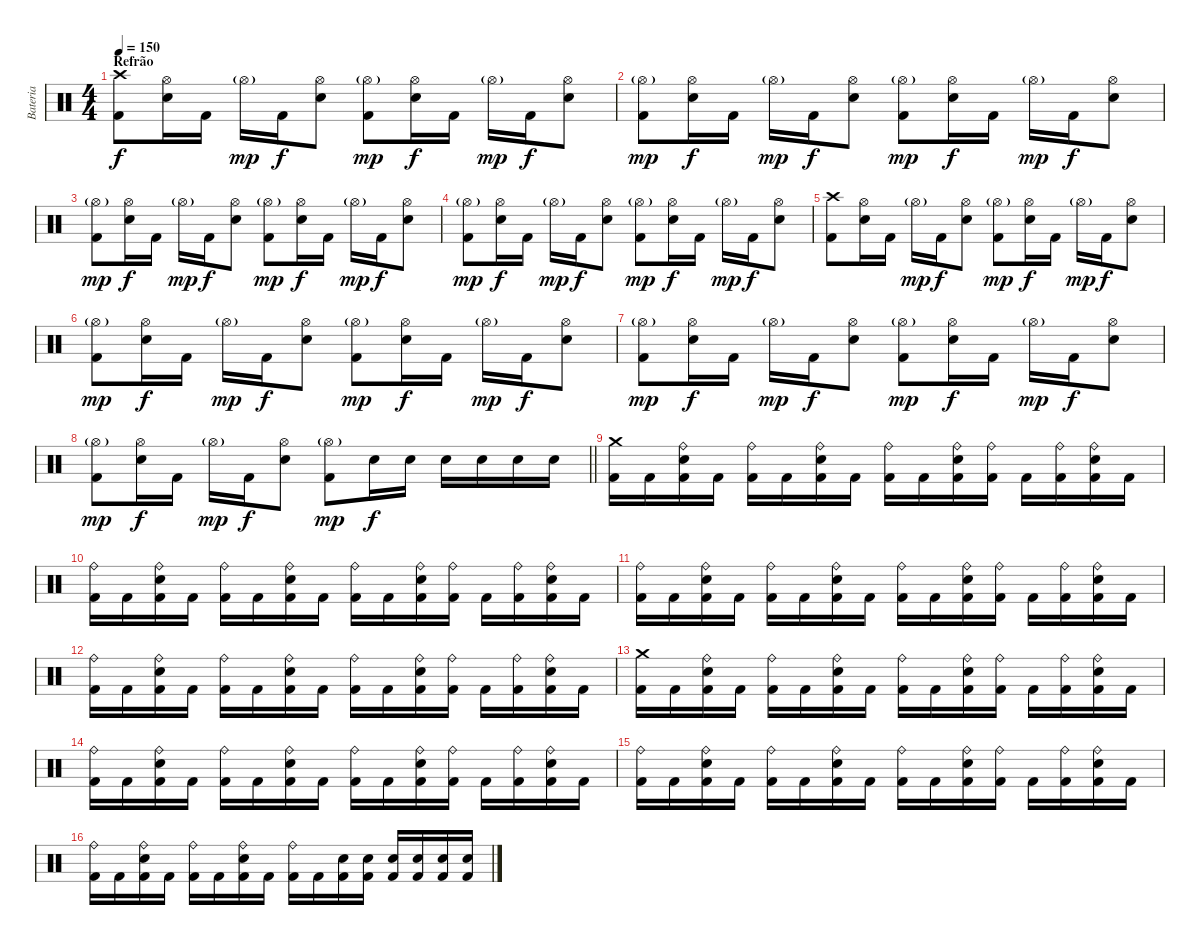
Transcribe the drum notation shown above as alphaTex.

\track ("Bateria" "Bateria") {instrument percussion}
\staff {score}
\articulation defaults
\ts (4 4)
\section ("" "Refrão")
\tempo 150
\clef neutral
\ks c
("Crash high (hit)" "Kick (hit) 2").8{dy f} ("Hi-Hat (open)" "Electric Snare (hit)").16 "Kick (hit) 2".16 "Hi-Hat (open)"{g}.16{dy mp} "Kick (hit) 2".16{dy f} ("Hi-Hat (open)" "Electric Snare (hit)").8 ("Hi-Hat (open)"{g} "Kick (hit) 2").8{dy mp} ("Hi-Hat (open)" "Electric Snare (hit)").16{dy f} "Kick (hit) 2".16 "Hi-Hat (open)"{g}.16{dy mp} "Kick (hit) 2".16{dy f} ("Hi-Hat (open)" "Electric Snare (hit)").8 |
("Hi-Hat (open)"{g} "Kick (hit) 2").8{dy mp} ("Hi-Hat (open)" "Electric Snare (hit)").16{dy f} "Kick (hit) 2".16 "Hi-Hat (open)"{g}.16{dy mp} "Kick (hit) 2".16{dy f} ("Hi-Hat (open)" "Electric Snare (hit)").8 ("Hi-Hat (open)"{g} "Kick (hit) 2").8{dy mp} ("Hi-Hat (open)" "Electric Snare (hit)").16{dy f} "Kick (hit) 2".16 "Hi-Hat (open)"{g}.16{dy mp} "Kick (hit) 2".16{dy f} ("Hi-Hat (open)" "Electric Snare (hit)").8 |
("Hi-Hat (open)"{g} "Kick (hit) 2").8{dy mp} ("Hi-Hat (open)" "Electric Snare (hit)").16{dy f} "Kick (hit) 2".16 "Hi-Hat (open)"{g}.16{dy mp} "Kick (hit) 2".16{dy f} ("Hi-Hat (open)" "Electric Snare (hit)").8 ("Hi-Hat (open)"{g} "Kick (hit) 2").8{dy mp} ("Hi-Hat (open)" "Electric Snare (hit)").16{dy f} "Kick (hit) 2".16 "Hi-Hat (open)"{g}.16{dy mp} "Kick (hit) 2".16{dy f} ("Hi-Hat (open)" "Electric Snare (hit)").8 |
("Hi-Hat (open)"{g} "Kick (hit) 2").8{dy mp} ("Hi-Hat (open)" "Electric Snare (hit)").16{dy f} "Kick (hit) 2".16 "Hi-Hat (open)"{g}.16{dy mp} "Kick (hit) 2".16{dy f} ("Hi-Hat (open)" "Electric Snare (hit)").8 ("Hi-Hat (open)"{g} "Kick (hit) 2").8{dy mp} ("Hi-Hat (open)" "Electric Snare (hit)").16{dy f} "Kick (hit) 2".16 "Hi-Hat (open)"{g}.16{dy mp} "Kick (hit) 2".16{dy f} ("Hi-Hat (open)" "Electric Snare (hit)").8 |
("Crash high (hit)" "Kick (hit) 2").8 ("Hi-Hat (open)" "Electric Snare (hit)").16 "Kick (hit) 2".16 "Hi-Hat (open)"{g}.16{dy mp} "Kick (hit) 2".16{dy f} ("Hi-Hat (open)" "Electric Snare (hit)").8 ("Hi-Hat (open)"{g} "Kick (hit) 2").8{dy mp} ("Hi-Hat (open)" "Electric Snare (hit)").16{dy f} "Kick (hit) 2".16 "Hi-Hat (open)"{g}.16{dy mp} "Kick (hit) 2".16{dy f} ("Hi-Hat (open)" "Electric Snare (hit)").8 |
("Hi-Hat (open)"{g} "Kick (hit) 2").8{dy mp} ("Hi-Hat (open)" "Electric Snare (hit)").16{dy f} "Kick (hit) 2".16 "Hi-Hat (open)"{g}.16{dy mp} "Kick (hit) 2".16{dy f} ("Hi-Hat (open)" "Electric Snare (hit)").8 ("Hi-Hat (open)"{g} "Kick (hit) 2").8{dy mp} ("Hi-Hat (open)" "Electric Snare (hit)").16{dy f} "Kick (hit) 2".16 "Hi-Hat (open)"{g}.16{dy mp} "Kick (hit) 2".16{dy f} ("Hi-Hat (open)" "Electric Snare (hit)").8 |
("Hi-Hat (open)"{g} "Kick (hit) 2").8{dy mp} ("Hi-Hat (open)" "Electric Snare (hit)").16{dy f} "Kick (hit) 2".16 "Hi-Hat (open)"{g}.16{dy mp} "Kick (hit) 2".16{dy f} ("Hi-Hat (open)" "Electric Snare (hit)").8 ("Hi-Hat (open)"{g} "Kick (hit) 2").8{dy mp} ("Hi-Hat (open)" "Electric Snare (hit)").16{dy f} "Kick (hit) 2".16 "Hi-Hat (open)"{g}.16{dy mp} "Kick (hit) 2".16{dy f} ("Hi-Hat (open)" "Electric Snare (hit)").8 |
\barLineRight lightlight
("Hi-Hat (open)"{g} "Kick (hit) 2").8{dy mp} ("Hi-Hat (open)" "Electric Snare (hit)").16{dy f} "Kick (hit) 2".16 "Hi-Hat (open)"{g}.16{dy mp} "Kick (hit) 2".16{dy f} ("Hi-Hat (open)" "Electric Snare (hit)").8 ("Hi-Hat (open)"{g} "Kick (hit) 2").8{dy mp} "Electric Snare (hit)".16{dy f} "Electric Snare (hit)".16 "Electric Snare (hit)".16 "Electric Snare (hit)".16 "Electric Snare (hit)".16 "Electric Snare (hit)".16 |
("Crash medium (hit)" "Kick (hit) 2").16 "Kick (hit) 2".16 ("Ride (bell)" "Electric Snare (hit)" "Kick (hit) 2").16 "Kick (hit) 2".16 ("Ride (bell)" "Kick (hit) 2").16 "Kick (hit) 2".16 ("Ride (bell)" "Electric Snare (hit)" "Kick (hit) 2").16 "Kick (hit) 2".16 ("Ride (bell)" "Kick (hit) 2").16 "Kick (hit) 2".16 ("Ride (bell)" "Electric Snare (hit)" "Kick (hit) 2").16 ("Ride (bell)" "Kick (hit) 2").16 "Kick (hit) 2".16 ("Ride (bell)" "Kick (hit) 2").16 ("Ride (bell)" "Electric Snare (hit)" "Kick (hit) 2").16 "Kick (hit) 2".16 |
("Ride (bell)" "Kick (hit) 2").16 "Kick (hit) 2".16 ("Ride (bell)" "Electric Snare (hit)" "Kick (hit) 2").16 "Kick (hit) 2".16 ("Ride (bell)" "Kick (hit) 2").16 "Kick (hit) 2".16 ("Ride (bell)" "Electric Snare (hit)" "Kick (hit) 2").16 "Kick (hit) 2".16 ("Ride (bell)" "Kick (hit) 2").16 "Kick (hit) 2".16 ("Ride (bell)" "Electric Snare (hit)" "Kick (hit) 2").16 ("Ride (bell)" "Kick (hit) 2").16 "Kick (hit) 2".16 ("Ride (bell)" "Kick (hit) 2").16 ("Ride (bell)" "Electric Snare (hit)" "Kick (hit) 2").16 "Kick (hit) 2".16 |
("Ride (bell)" "Kick (hit) 2").16 "Kick (hit) 2".16 ("Ride (bell)" "Electric Snare (hit)" "Kick (hit) 2").16 "Kick (hit) 2".16 ("Ride (bell)" "Kick (hit) 2").16 "Kick (hit) 2".16 ("Ride (bell)" "Electric Snare (hit)" "Kick (hit) 2").16 "Kick (hit) 2".16 ("Ride (bell)" "Kick (hit) 2").16 "Kick (hit) 2".16 ("Ride (bell)" "Electric Snare (hit)" "Kick (hit) 2").16 ("Ride (bell)" "Kick (hit) 2").16 "Kick (hit) 2".16 ("Ride (bell)" "Kick (hit) 2").16 ("Ride (bell)" "Electric Snare (hit)" "Kick (hit) 2").16 "Kick (hit) 2".16 |
("Ride (bell)" "Kick (hit) 2").16 "Kick (hit) 2".16 ("Ride (bell)" "Electric Snare (hit)" "Kick (hit) 2").16 "Kick (hit) 2".16 ("Ride (bell)" "Kick (hit) 2").16 "Kick (hit) 2".16 ("Ride (bell)" "Electric Snare (hit)" "Kick (hit) 2").16 "Kick (hit) 2".16 ("Ride (bell)" "Kick (hit) 2").16 "Kick (hit) 2".16 ("Ride (bell)" "Electric Snare (hit)" "Kick (hit) 2").16 ("Ride (bell)" "Kick (hit) 2").16 "Kick (hit) 2".16 ("Ride (bell)" "Kick (hit) 2").16 ("Ride (bell)" "Electric Snare (hit)" "Kick (hit) 2").16 "Kick (hit) 2".16 |
("Crash medium (hit)" "Kick (hit) 2").16 "Kick (hit) 2".16 ("Ride (bell)" "Electric Snare (hit)" "Kick (hit) 2").16 "Kick (hit) 2".16 ("Ride (bell)" "Kick (hit) 2").16 "Kick (hit) 2".16 ("Ride (bell)" "Electric Snare (hit)" "Kick (hit) 2").16 "Kick (hit) 2".16 ("Ride (bell)" "Kick (hit) 2").16 "Kick (hit) 2".16 ("Ride (bell)" "Electric Snare (hit)" "Kick (hit) 2").16 ("Ride (bell)" "Kick (hit) 2").16 "Kick (hit) 2".16 ("Ride (bell)" "Kick (hit) 2").16 ("Ride (bell)" "Electric Snare (hit)" "Kick (hit) 2").16 "Kick (hit) 2".16 |
("Ride (bell)" "Kick (hit) 2").16 "Kick (hit) 2".16 ("Ride (bell)" "Electric Snare (hit)" "Kick (hit) 2").16 "Kick (hit) 2".16 ("Ride (bell)" "Kick (hit) 2").16 "Kick (hit) 2".16 ("Ride (bell)" "Electric Snare (hit)" "Kick (hit) 2").16 "Kick (hit) 2".16 ("Ride (bell)" "Kick (hit) 2").16 "Kick (hit) 2".16 ("Ride (bell)" "Electric Snare (hit)" "Kick (hit) 2").16 ("Ride (bell)" "Kick (hit) 2").16 "Kick (hit) 2".16 ("Ride (bell)" "Kick (hit) 2").16 ("Ride (bell)" "Electric Snare (hit)" "Kick (hit) 2").16 "Kick (hit) 2".16 |
("Ride (bell)" "Kick (hit) 2").16 "Kick (hit) 2".16 ("Ride (bell)" "Electric Snare (hit)" "Kick (hit) 2").16 "Kick (hit) 2".16 ("Ride (bell)" "Kick (hit) 2").16 "Kick (hit) 2".16 ("Ride (bell)" "Electric Snare (hit)" "Kick (hit) 2").16 "Kick (hit) 2".16 ("Ride (bell)" "Kick (hit) 2").16 "Kick (hit) 2".16 ("Ride (bell)" "Electric Snare (hit)" "Kick (hit) 2").16 ("Ride (bell)" "Kick (hit) 2").16 "Kick (hit) 2".16 ("Ride (bell)" "Kick (hit) 2").16 ("Ride (bell)" "Electric Snare (hit)" "Kick (hit) 2").16 "Kick (hit) 2".16 |
("Ride (bell)" "Kick (hit) 2").16 "Kick (hit) 2".16 ("Ride (bell)" "Electric Snare (hit)" "Kick (hit) 2").16 "Kick (hit) 2".16 ("Ride (bell)" "Kick (hit) 2").16 "Kick (hit) 2".16 ("Ride (bell)" "Electric Snare (hit)" "Kick (hit) 2").16 "Kick (hit) 2".16 ("Ride (bell)" "Kick (hit) 2").16 "Kick (hit) 2".16 ("Electric Snare (hit)" "Kick (hit) 2").16 ("Electric Snare (hit)" "Kick (hit) 2").16 ("Electric Snare (hit)" "Kick (hit) 2").16 ("Electric Snare (hit)" "Kick (hit) 2").16 ("Electric Snare (hit)" "Kick (hit) 2").16 ("Electric Snare (hit)" "Kick (hit) 2").16
